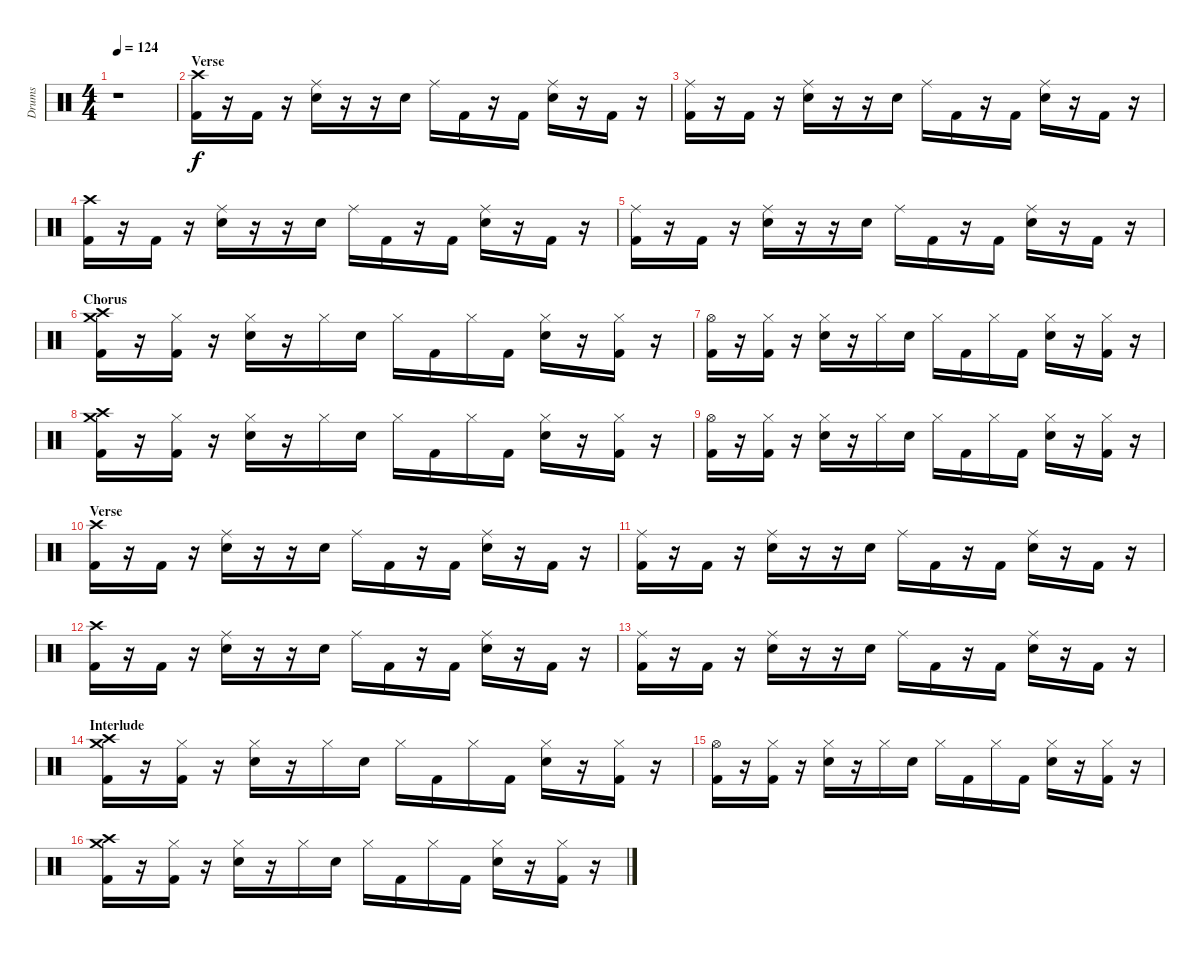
\track ("Drums" "Drums") {instrument percussion}
\staff {score}
\articulation defaults
\ts (4 4)
\tempo 124
\clef neutral
\ks c
r.1{dy f balance 5} |
\section ("" "Verse")
("Crash high (hit)" "Kick (hit) 2").16 r.16 "Kick (hit) 2".16 r.16 ("Ride (middle)" "Snare (hit) 2").16 r.16 r.16 "Snare (hit) 2".16 "Ride (middle)".16 "Kick (hit) 2".16 r.16 "Kick (hit) 2".16 ("Ride (middle)" "Snare (hit) 2").16 r.16 "Kick (hit) 2".16 r.16 |
("Ride (middle)" "Kick (hit) 2").16 r.16 "Kick (hit) 2".16 r.16 ("Ride (middle)" "Snare (hit) 2").16 r.16 r.16 "Snare (hit) 2".16 "Ride (middle)".16 "Kick (hit) 2".16 r.16 "Kick (hit) 2".16 ("Ride (middle)" "Snare (hit) 2").16 r.16 "Kick (hit) 2".16 r.16 |
("Crash high (hit)" "Kick (hit) 2").16 r.16 "Kick (hit) 2".16 r.16 ("Ride (middle)" "Snare (hit) 2").16 r.16 r.16 "Snare (hit) 2".16 "Ride (middle)".16 "Kick (hit) 2".16 r.16 "Kick (hit) 2".16 ("Ride (middle)" "Snare (hit) 2").16 r.16 "Kick (hit) 2".16 r.16 |
("Ride (middle)" "Kick (hit) 2").16 r.16 "Kick (hit) 2".16 r.16 ("Ride (middle)" "Snare (hit) 2").16 r.16 r.16 "Snare (hit) 2".16 "Ride (middle)".16 "Kick (hit) 2".16 r.16 "Kick (hit) 2".16 ("Ride (middle)" "Snare (hit) 2").16 r.16 "Kick (hit) 2".16 r.16 |
\section ("" "Chorus")
("Crash high (hit)" "Crash medium (hit)" "Kick (hit) 2").16 r.16 ("Hi-Hat (closed)" "Kick (hit) 2").16 r.16 ("Hi-Hat (closed)" "Snare (hit) 2").16 r.16 "Hi-Hat (closed)".16 "Snare (hit) 2".16 "Hi-Hat (closed)".16 "Kick (hit) 2".16 "Hi-Hat (closed)".16 "Kick (hit) 2".16 ("Hi-Hat (closed)" "Snare (hit) 2").16 r.16 ("Hi-Hat (closed)" "Kick (hit) 2").16 r.16 |
("Hi-Hat (open)" "Kick (hit) 2").16 r.16 ("Hi-Hat (closed)" "Kick (hit) 2").16 r.16 ("Hi-Hat (closed)" "Snare (hit) 2").16 r.16 "Hi-Hat (closed)".16 "Snare (hit) 2".16 "Hi-Hat (closed)".16 "Kick (hit) 2".16 "Hi-Hat (closed)".16 "Kick (hit) 2".16 ("Hi-Hat (closed)" "Snare (hit) 2").16 r.16 ("Hi-Hat (closed)" "Kick (hit) 2").16 r.16 |
("Crash high (hit)" "Crash medium (hit)" "Kick (hit) 2").16 r.16 ("Hi-Hat (closed)" "Kick (hit) 2").16 r.16 ("Hi-Hat (closed)" "Snare (hit) 2").16 r.16 "Hi-Hat (closed)".16 "Snare (hit) 2".16 "Hi-Hat (closed)".16 "Kick (hit) 2".16 "Hi-Hat (closed)".16 "Kick (hit) 2".16 ("Hi-Hat (closed)" "Snare (hit) 2").16 r.16 ("Hi-Hat (closed)" "Kick (hit) 2").16 r.16 |
("Hi-Hat (open)" "Kick (hit) 2").16 r.16 ("Hi-Hat (closed)" "Kick (hit) 2").16 r.16 ("Hi-Hat (closed)" "Snare (hit) 2").16 r.16 "Hi-Hat (closed)".16 "Snare (hit) 2".16 "Hi-Hat (closed)".16 "Kick (hit) 2".16 "Hi-Hat (closed)".16 "Kick (hit) 2".16 ("Hi-Hat (closed)" "Snare (hit) 2").16 r.16 ("Hi-Hat (closed)" "Kick (hit) 2").16 r.16 |
\section ("" "Verse")
("Crash high (hit)" "Kick (hit) 2").16 r.16 "Kick (hit) 2".16 r.16 ("Ride (middle)" "Snare (hit) 2").16 r.16 r.16 "Snare (hit) 2".16 "Ride (middle)".16 "Kick (hit) 2".16 r.16 "Kick (hit) 2".16 ("Ride (middle)" "Snare (hit) 2").16 r.16 "Kick (hit) 2".16 r.16 |
("Ride (middle)" "Kick (hit) 2").16 r.16 "Kick (hit) 2".16 r.16 ("Ride (middle)" "Snare (hit) 2").16 r.16 r.16 "Snare (hit) 2".16 "Ride (middle)".16 "Kick (hit) 2".16 r.16 "Kick (hit) 2".16 ("Ride (middle)" "Snare (hit) 2").16 r.16 "Kick (hit) 2".16 r.16 |
("Crash high (hit)" "Kick (hit) 2").16 r.16 "Kick (hit) 2".16 r.16 ("Ride (middle)" "Snare (hit) 2").16 r.16 r.16 "Snare (hit) 2".16 "Ride (middle)".16 "Kick (hit) 2".16 r.16 "Kick (hit) 2".16 ("Ride (middle)" "Snare (hit) 2").16 r.16 "Kick (hit) 2".16 r.16 |
("Ride (middle)" "Kick (hit) 2").16 r.16 "Kick (hit) 2".16 r.16 ("Ride (middle)" "Snare (hit) 2").16 r.16 r.16 "Snare (hit) 2".16 "Ride (middle)".16 "Kick (hit) 2".16 r.16 "Kick (hit) 2".16 ("Ride (middle)" "Snare (hit) 2").16 r.16 "Kick (hit) 2".16 r.16 |
\section ("" "Interlude")
("Crash high (hit)" "Crash medium (hit)" "Kick (hit) 2").16 r.16 ("Hi-Hat (closed)" "Kick (hit) 2").16 r.16 ("Hi-Hat (closed)" "Snare (hit) 2").16 r.16 "Hi-Hat (closed)".16 "Snare (hit) 2".16 "Hi-Hat (closed)".16 "Kick (hit) 2".16 "Hi-Hat (closed)".16 "Kick (hit) 2".16 ("Hi-Hat (closed)" "Snare (hit) 2").16 r.16 ("Hi-Hat (closed)" "Kick (hit) 2").16 r.16 |
("Hi-Hat (open)" "Kick (hit) 2").16 r.16 ("Hi-Hat (closed)" "Kick (hit) 2").16 r.16 ("Hi-Hat (closed)" "Snare (hit) 2").16 r.16 "Hi-Hat (closed)".16 "Snare (hit) 2".16 "Hi-Hat (closed)".16 "Kick (hit) 2".16 "Hi-Hat (closed)".16 "Kick (hit) 2".16 ("Hi-Hat (closed)" "Snare (hit) 2").16 r.16 ("Hi-Hat (closed)" "Kick (hit) 2").16 r.16 |
("Crash high (hit)" "Crash medium (hit)" "Kick (hit) 2").16 r.16 ("Hi-Hat (closed)" "Kick (hit) 2").16 r.16 ("Hi-Hat (closed)" "Snare (hit) 2").16 r.16 "Hi-Hat (closed)".16 "Snare (hit) 2".16 "Hi-Hat (closed)".16 "Kick (hit) 2".16 "Hi-Hat (closed)".16 "Kick (hit) 2".16 ("Hi-Hat (closed)" "Snare (hit) 2").16 r.16 ("Hi-Hat (closed)" "Kick (hit) 2").16 r.16
